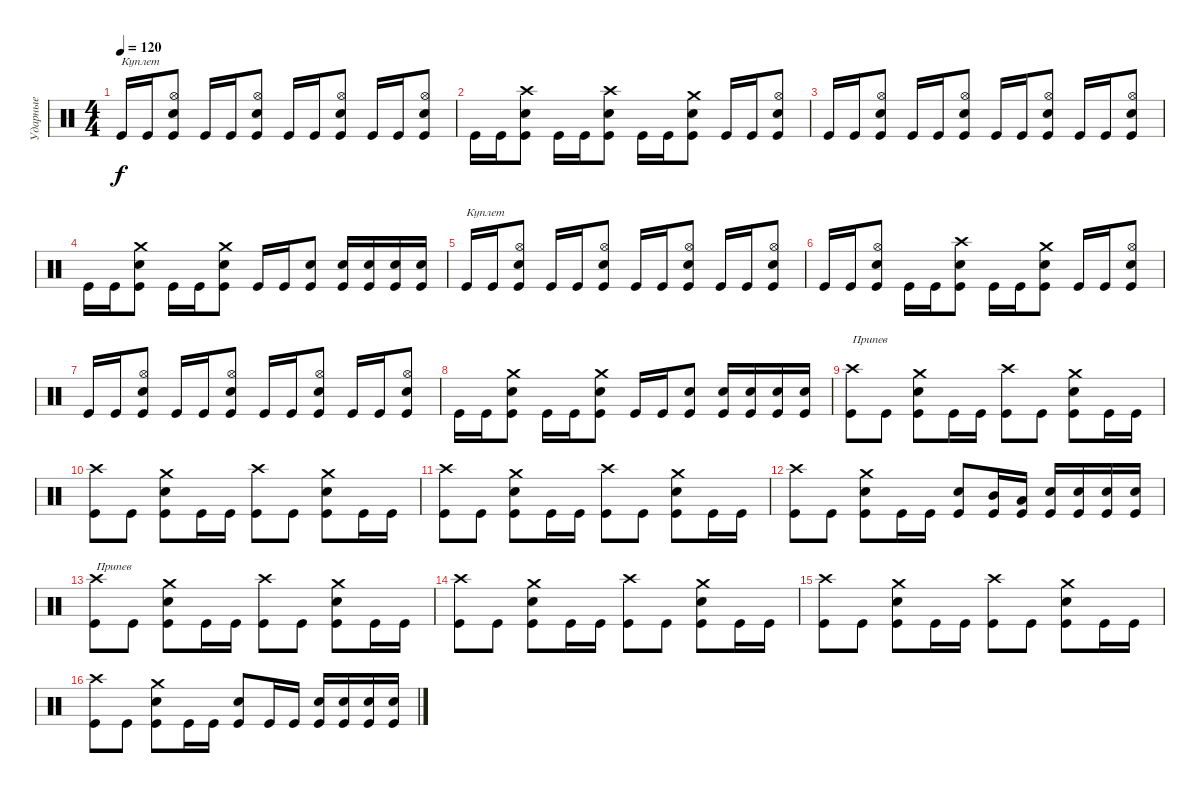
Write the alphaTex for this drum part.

\track ("Ударные" "Ударные") {instrument percussion}
\staff {score}
\articulation defaults
\ts (4 4)
\tempo 120
\clef neutral
\ks c "Kick (hit)".16{txt "Куплет" dy f} "Kick (hit)".16
("Hi-Hat (open)" "Snare (hit) 2" "Kick (hit)").8 "Kick (hit)".16 "Kick (hit)".16 ("Hi-Hat (open)" "Snare (hit) 2" "Kick (hit)").8 "Kick (hit)".16 "Kick (hit)".16 ("Hi-Hat (open)" "Snare (hit) 2" "Kick (hit)").8 "Kick (hit)".16 "Kick (hit)".16 ("Hi-Hat (open)" "Snare (hit) 2" "Kick (hit)").8 |
"Kick (hit)".16 "Kick (hit)".16 ("Crash high (hit)" "Snare (hit) 2" "Kick (hit)").8 "Kick (hit)".16 "Kick (hit)".16 ("Crash high (hit)" "Snare (hit) 2" "Kick (hit)").8 "Kick (hit)".16 "Kick (hit)".16 ("Crash medium (hit)" "Snare (hit) 2" "Kick (hit)").8 "Kick (hit)".16 "Kick (hit)".16 ("Hi-Hat (open)" "Snare (hit) 2" "Kick (hit)").8 |
"Kick (hit)".16 "Kick (hit)".16 ("Hi-Hat (open)" "Snare (hit) 2" "Kick (hit)").8 "Kick (hit)".16 "Kick (hit)".16 ("Hi-Hat (open)" "Snare (hit) 2" "Kick (hit)").8 "Kick (hit)".16 "Kick (hit)".16 ("Hi-Hat (open)" "Snare (hit) 2" "Kick (hit)").8 "Kick (hit)".16 "Kick (hit)".16 ("Hi-Hat (open)" "Snare (hit) 2" "Kick (hit)").8 |
"Kick (hit)".16 "Kick (hit)".16 ("Crash medium (hit)" "Snare (hit) 2" "Kick (hit)").8 "Kick (hit)".16 "Kick (hit)".16 ("Crash medium (hit)" "Snare (hit) 2" "Kick (hit)").8 "Kick (hit)".16 "Kick (hit)".16 ("Snare (hit) 2" "Kick (hit)").8 ("Snare (hit) 2" "Kick (hit)").16 ("Snare (hit) 2" "Kick (hit)").16 ("Snare (hit) 2" "Kick (hit)").16 ("Snare (hit) 2" "Kick (hit)").16 |
"Kick (hit)".16{txt "Куплет"} "Kick (hit)".16 ("Hi-Hat (open)" "Snare (hit) 2" "Kick (hit)").8 "Kick (hit)".16 "Kick (hit)".16 ("Hi-Hat (open)" "Snare (hit) 2" "Kick (hit)").8 "Kick (hit)".16 "Kick (hit)".16 ("Hi-Hat (open)" "Snare (hit) 2" "Kick (hit)").8 "Kick (hit)".16 "Kick (hit)".16 ("Hi-Hat (open)" "Snare (hit) 2" "Kick (hit)").8 |
"Kick (hit)".16 "Kick (hit)".16 ("Hi-Hat (open)" "Snare (hit) 2" "Kick (hit)").8 "Kick (hit)".16 "Kick (hit)".16 ("Crash high (hit)" "Snare (hit) 2" "Kick (hit)").8 "Kick (hit)".16 "Kick (hit)".16 ("Crash medium (hit)" "Snare (hit) 2" "Kick (hit)").8 "Kick (hit)".16 "Kick (hit)".16 ("Hi-Hat (open)" "Snare (hit) 2" "Kick (hit)").8 |
"Kick (hit)".16 "Kick (hit)".16 ("Hi-Hat (open)" "Snare (hit) 2" "Kick (hit)").8 "Kick (hit)".16 "Kick (hit)".16 ("Hi-Hat (open)" "Snare (hit) 2" "Kick (hit)").8 "Kick (hit)".16 "Kick (hit)".16 ("Hi-Hat (open)" "Snare (hit) 2" "Kick (hit)").8 "Kick (hit)".16 "Kick (hit)".16 ("Hi-Hat (open)" "Snare (hit) 2" "Kick (hit)").8 |
"Kick (hit)".16 "Kick (hit)".16 ("Crash medium (hit)" "Snare (hit) 2" "Kick (hit)").8 "Kick (hit)".16 "Kick (hit)".16 ("Crash medium (hit)" "Snare (hit) 2" "Kick (hit)").8 "Kick (hit)".16 "Kick (hit)".16 ("Snare (hit) 2" "Kick (hit)").8 ("Snare (hit) 2" "Kick (hit)").16 ("Snare (hit) 2" "Kick (hit)").16 ("Snare (hit) 2" "Kick (hit)").16 ("Snare (hit) 2" "Kick (hit)").16 |
("Crash high (hit)" "Kick (hit)").8{txt "Припев"} "Kick (hit)".8 ("Crash medium (hit)" "Snare (hit) 2" "Kick (hit)").8 "Kick (hit)".16 "Kick (hit)".16 ("Crash high (hit)" "Kick (hit)").8 "Kick (hit)".8 ("Crash medium (hit)" "Snare (hit) 2" "Kick (hit)").8 "Kick (hit)".16 "Kick (hit)".16 |
("Crash high (hit)" "Kick (hit)").8 "Kick (hit)".8 ("Crash medium (hit)" "Snare (hit) 2" "Kick (hit)").8 "Kick (hit)".16 "Kick (hit)".16 ("Crash high (hit)" "Kick (hit)").8 "Kick (hit)".8 ("Crash medium (hit)" "Snare (hit) 2" "Kick (hit)").8 "Kick (hit)".16 "Kick (hit)".16 |
("Crash high (hit)" "Kick (hit)").8 "Kick (hit)".8 ("Crash medium (hit)" "Snare (hit) 2" "Kick (hit)").8 "Kick (hit)".16 "Kick (hit)".16 ("Crash high (hit)" "Kick (hit)").8 "Kick (hit)".8 ("Crash medium (hit)" "Snare (hit) 2" "Kick (hit)").8 "Kick (hit)".16 "Kick (hit)".16 |
("Crash high (hit)" "Kick (hit)").8 "Kick (hit)".8 ("Crash medium (hit)" "Snare (hit) 2" "Kick (hit)").8 "Kick (hit)".16 "Kick (hit)".16 ("Snare (hit) 2" "Kick (hit)").8 ("Mid Tom (hit)" "Kick (hit)").16 ("Low Tom (hit)" "Kick (hit)").16 ("Snare (hit) 2" "Kick (hit)").16 ("Snare (hit) 2" "Kick (hit)").16 ("Snare (hit) 2" "Kick (hit)").16 ("Snare (hit) 2" "Kick (hit)").16 |
("Crash high (hit)" "Kick (hit)").8{txt "Припев"} "Kick (hit)".8 ("Crash medium (hit)" "Snare (hit) 2" "Kick (hit)").8 "Kick (hit)".16 "Kick (hit)".16 ("Crash high (hit)" "Kick (hit)").8 "Kick (hit)".8 ("Crash medium (hit)" "Snare (hit) 2" "Kick (hit)").8 "Kick (hit)".16 "Kick (hit)".16 |
("Crash high (hit)" "Kick (hit)").8 "Kick (hit)".8 ("Crash medium (hit)" "Snare (hit) 2" "Kick (hit)").8 "Kick (hit)".16 "Kick (hit)".16 ("Crash high (hit)" "Kick (hit)").8 "Kick (hit)".8 ("Crash medium (hit)" "Snare (hit) 2" "Kick (hit)").8 "Kick (hit)".16 "Kick (hit)".16 |
("Crash high (hit)" "Kick (hit)").8 "Kick (hit)".8 ("Crash medium (hit)" "Snare (hit) 2" "Kick (hit)").8 "Kick (hit)".16 "Kick (hit)".16 ("Crash high (hit)" "Kick (hit)").8 "Kick (hit)".8 ("Crash medium (hit)" "Snare (hit) 2" "Kick (hit)").8 "Kick (hit)".16 "Kick (hit)".16 |
("Crash high (hit)" "Kick (hit)").8 "Kick (hit)".8 ("Crash medium (hit)" "Snare (hit) 2" "Kick (hit)").8 "Kick (hit)".16 "Kick (hit)".16 ("Snare (hit) 2" "Kick (hit)").8 "Kick (hit)".16 "Kick (hit)".16 ("Snare (hit) 2" "Kick (hit)").16 ("Snare (hit) 2" "Kick (hit)").16 ("Snare (hit) 2" "Kick (hit)").16 ("Snare (hit) 2" "Kick (hit)").16
